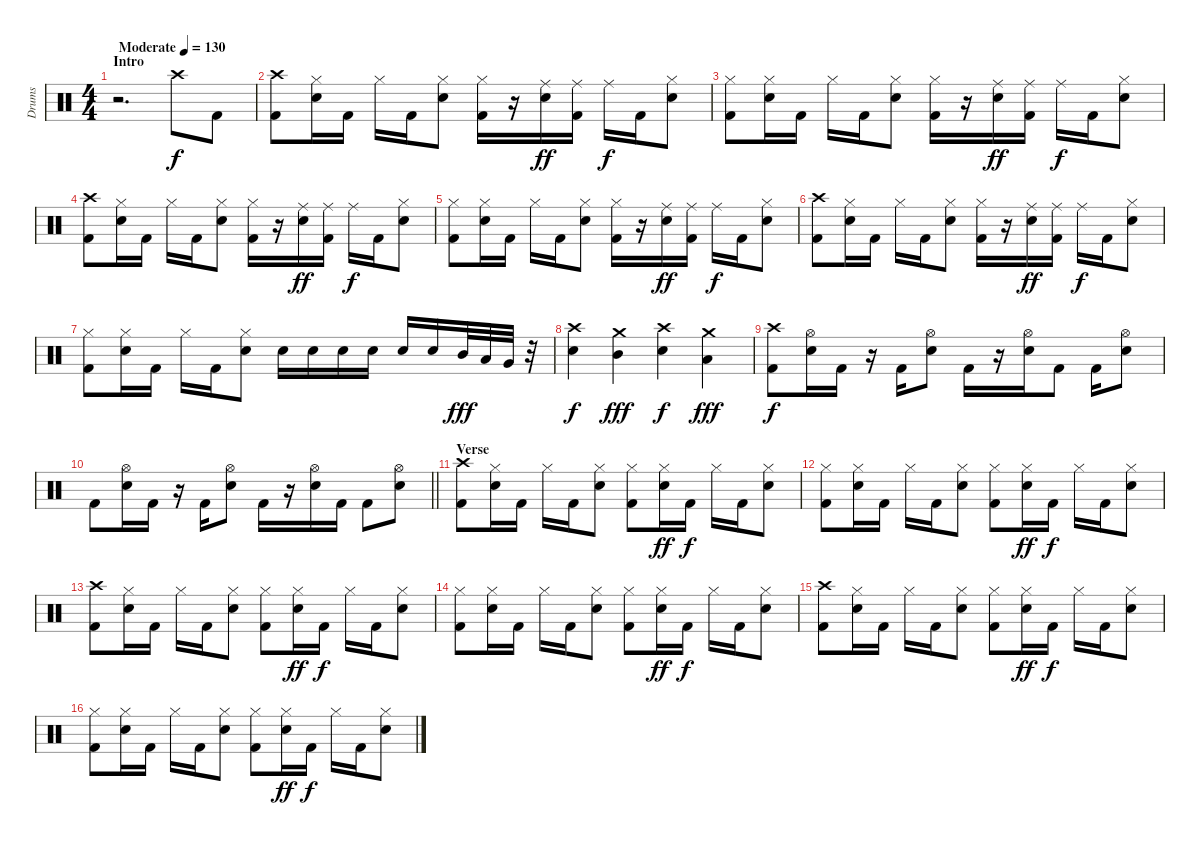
\track ("Drums" "Drums") {instrument percussion}
\staff {score}
\articulation defaults
\ts (4 4)
\section ("" "Intro")
\tempo (130 "Moderate")
\clef neutral
\ks c
r.2{d dy f} "Crash high (hit)".8 "Kick (hit) 2".8 |
("Crash high (hit)" "Kick (hit) 2").8 ("Hi-Hat (closed)" "Snare (hit) 2").16 "Kick (hit) 2".16 "Hi-Hat (closed)".16 "Kick (hit) 2".16 ("Hi-Hat (closed)" "Snare (hit) 2").8 ("Hi-Hat (closed)" "Kick (hit) 2").16 r.16 ("Ride (middle)" "Snare (hit) 2").16{dy ff} ("Ride (middle)" "Kick (hit) 2").16 "Ride (middle)".16{dy f} "Kick (hit) 2".16 ("Hi-Hat (closed)" "Snare (hit) 2").8 |
("Hi-Hat (closed)" "Kick (hit) 2").8 ("Hi-Hat (closed)" "Snare (hit) 2").16 "Kick (hit) 2".16 "Hi-Hat (closed)".16 "Kick (hit) 2".16 ("Hi-Hat (closed)" "Snare (hit) 2").8 ("Hi-Hat (closed)" "Kick (hit) 2").16 r.16 ("Ride (middle)" "Snare (hit) 2").16{dy ff} ("Ride (middle)" "Kick (hit) 2").16 "Ride (middle)".16{dy f} "Kick (hit) 2".16 ("Hi-Hat (closed)" "Snare (hit) 2").8 |
("Crash high (hit)" "Kick (hit) 2").8 ("Hi-Hat (closed)" "Snare (hit) 2").16 "Kick (hit) 2".16 "Hi-Hat (closed)".16 "Kick (hit) 2".16 ("Hi-Hat (closed)" "Snare (hit) 2").8 ("Hi-Hat (closed)" "Kick (hit) 2").16 r.16 ("Ride (middle)" "Snare (hit) 2").16{dy ff} ("Ride (middle)" "Kick (hit) 2").16 "Ride (middle)".16{dy f} "Kick (hit) 2".16 ("Hi-Hat (closed)" "Snare (hit) 2").8 |
("Hi-Hat (closed)" "Kick (hit) 2").8 ("Hi-Hat (closed)" "Snare (hit) 2").16 "Kick (hit) 2".16 "Hi-Hat (closed)".16 "Kick (hit) 2".16 ("Hi-Hat (closed)" "Snare (hit) 2").8 ("Hi-Hat (closed)" "Kick (hit) 2").16 r.16 ("Ride (middle)" "Snare (hit) 2").16{dy ff} ("Ride (middle)" "Kick (hit) 2").16 "Ride (middle)".16{dy f} "Kick (hit) 2".16 ("Hi-Hat (closed)" "Snare (hit) 2").8 |
("Crash high (hit)" "Kick (hit) 2").8 ("Hi-Hat (closed)" "Snare (hit) 2").16 "Kick (hit) 2".16 "Hi-Hat (closed)".16 "Kick (hit) 2".16 ("Hi-Hat (closed)" "Snare (hit) 2").8 ("Hi-Hat (closed)" "Kick (hit) 2").16 r.16 ("Ride (middle)" "Snare (hit) 2").16{dy ff} ("Ride (middle)" "Kick (hit) 2").16 "Ride (middle)".16{dy f} "Kick (hit) 2".16 ("Hi-Hat (closed)" "Snare (hit) 2").8 |
("Hi-Hat (closed)" "Kick (hit) 2").8 ("Hi-Hat (closed)" "Snare (hit) 2").16 "Kick (hit) 2".16 "Hi-Hat (closed)".16 "Kick (hit) 2".16 ("Hi-Hat (closed)" "Snare (hit) 2").8 "Snare (hit) 2".16 "Snare (hit) 2".16 "Snare (hit) 2".16 "Snare (hit) 2".16 "Snare (hit) 2".16 "Snare (hit) 2".16 "Mid Tom (hit)".32{dy fff} "Low Tom (hit)".32 "Very Low Tom (hit)".32 r.32 |
("Crash high (hit)" "Snare (hit) 2").4{dy f} ("Crash medium (hit)" "Mid Tom (hit)").4{dy fff} ("Crash high (hit)" "Snare (hit) 2").4{dy f} ("Crash medium (hit)" "Low Tom (hit)").4{dy fff} |
("Crash high (hit)" "Kick (hit) 2").8{dy f} ("Hi-Hat (open)" "Snare (hit) 2").16 "Kick (hit) 2".16 r.16 "Kick (hit) 2".16 ("Hi-Hat (open)" "Snare (hit) 2").8 "Kick (hit) 2".16 r.16 ("Hi-Hat (open)" "Snare (hit) 2").16 "Kick (hit) 2".8 "Kick (hit) 2".16 ("Hi-Hat (open)" "Snare (hit) 2").8 |
\barLineRight lightlight "Kick (hit) 2".8
("Hi-Hat (open)" "Snare (hit) 2").16 "Kick (hit) 2".16 r.16 "Kick (hit) 2".16 ("Hi-Hat (open)" "Snare (hit) 2").8 "Kick (hit) 2".16 r.16 ("Hi-Hat (open)" "Snare (hit) 2").16 "Kick (hit) 2".16 "Kick (hit) 2".8 ("Hi-Hat (open)" "Snare (hit) 2").8 |
\section ("" "Verse")
("Crash high (hit)" "Kick (hit) 2").8 ("Hi-Hat (closed)" "Snare (hit) 2").16 "Kick (hit) 2".16 "Hi-Hat (closed)".16 "Kick (hit) 2".16 ("Hi-Hat (closed)" "Snare (hit) 2").8 ("Hi-Hat (closed)" "Kick (hit) 2").8 ("Hi-Hat (closed)" "Snare (hit) 2").16{dy ff} "Kick (hit) 2".16{dy f} "Hi-Hat (closed)".16 "Kick (hit) 2".16 ("Hi-Hat (closed)" "Snare (hit) 2").8 |
("Hi-Hat (closed)" "Kick (hit) 2").8 ("Hi-Hat (closed)" "Snare (hit) 2").16 "Kick (hit) 2".16 "Hi-Hat (closed)".16 "Kick (hit) 2".16 ("Hi-Hat (closed)" "Snare (hit) 2").8 ("Hi-Hat (closed)" "Kick (hit) 2").8 ("Hi-Hat (closed)" "Snare (hit) 2").16{dy ff} "Kick (hit) 2".16{dy f} "Hi-Hat (closed)".16 "Kick (hit) 2".16 ("Hi-Hat (closed)" "Snare (hit) 2").8 |
("Crash high (hit)" "Kick (hit) 2").8 ("Hi-Hat (closed)" "Snare (hit) 2").16 "Kick (hit) 2".16 "Hi-Hat (closed)".16 "Kick (hit) 2".16 ("Hi-Hat (closed)" "Snare (hit) 2").8 ("Hi-Hat (closed)" "Kick (hit) 2").8 ("Hi-Hat (closed)" "Snare (hit) 2").16{dy ff} "Kick (hit) 2".16{dy f} "Hi-Hat (closed)".16 "Kick (hit) 2".16 ("Hi-Hat (closed)" "Snare (hit) 2").8 |
("Hi-Hat (closed)" "Kick (hit) 2").8 ("Hi-Hat (closed)" "Snare (hit) 2").16 "Kick (hit) 2".16 "Hi-Hat (closed)".16 "Kick (hit) 2".16 ("Hi-Hat (closed)" "Snare (hit) 2").8 ("Hi-Hat (closed)" "Kick (hit) 2").8 ("Hi-Hat (closed)" "Snare (hit) 2").16{dy ff} "Kick (hit) 2".16{dy f} "Hi-Hat (closed)".16 "Kick (hit) 2".16 ("Hi-Hat (closed)" "Snare (hit) 2").8 |
("Crash high (hit)" "Kick (hit) 2").8 ("Hi-Hat (closed)" "Snare (hit) 2").16 "Kick (hit) 2".16 "Hi-Hat (closed)".16 "Kick (hit) 2".16 ("Hi-Hat (closed)" "Snare (hit) 2").8 ("Hi-Hat (closed)" "Kick (hit) 2").8 ("Hi-Hat (closed)" "Snare (hit) 2").16{dy ff} "Kick (hit) 2".16{dy f} "Hi-Hat (closed)".16 "Kick (hit) 2".16 ("Hi-Hat (closed)" "Snare (hit) 2").8 |
("Hi-Hat (closed)" "Kick (hit) 2").8 ("Hi-Hat (closed)" "Snare (hit) 2").16 "Kick (hit) 2".16 "Hi-Hat (closed)".16 "Kick (hit) 2".16 ("Hi-Hat (closed)" "Snare (hit) 2").8 ("Hi-Hat (closed)" "Kick (hit) 2").8 ("Hi-Hat (closed)" "Snare (hit) 2").16{dy ff} "Kick (hit) 2".16{dy f} "Hi-Hat (closed)".16 "Kick (hit) 2".16 ("Hi-Hat (closed)" "Snare (hit) 2").8
